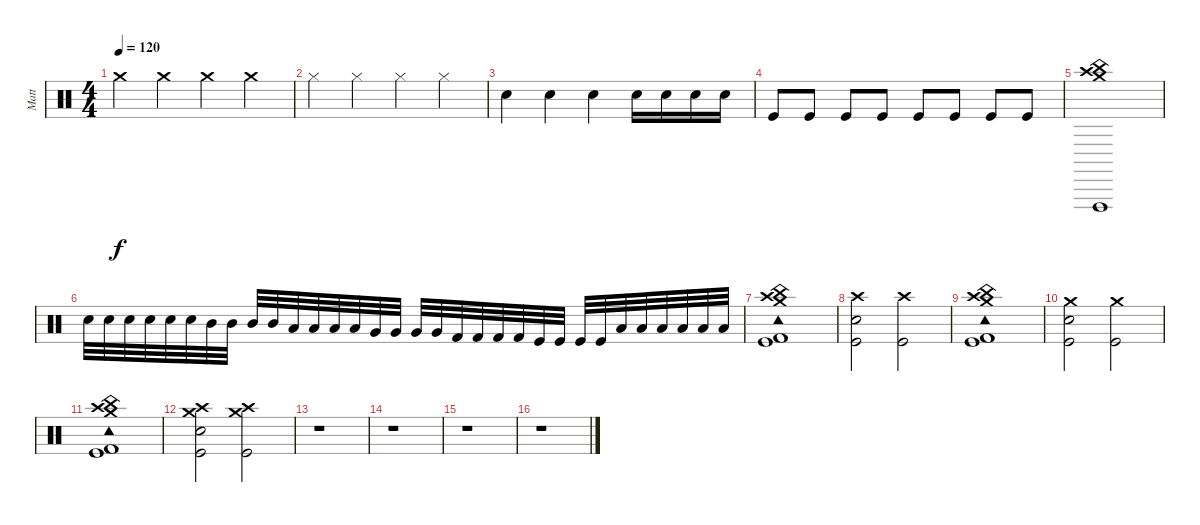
\track ("Matt" "Matt") {instrument percussion}
\staff {score}
\articulation defaults
\ts (4 4)
\tempo 120
\clef neutral
\ks c "Crash medium (hit)".4{dy f} "Crash medium (hit)".4 "Crash medium (hit)".4 "Crash medium (hit)".4
|
"Hi-Hat (closed)".4 "Hi-Hat (closed)".4 "Hi-Hat (closed)".4 "Hi-Hat (closed)".4 |
"Electric Snare (hit)".4 "Electric Snare (hit)".4 "Electric Snare (hit)".4 "Electric Snare (hit)".16 "Electric Snare (hit)".16 "Electric Snare (hit)".16 "Electric Snare (hit)".16 |
"Kick (hit)".8 "Kick (hit)".8 "Kick (hit)".8 "Kick (hit)".8 "Kick (hit)".8 "Kick (hit)".8 "Kick (hit)".8 "Kick (hit)".8 |
("Vibraslap (hit)" "China (hit)" "Crash medium (hit)" "Crash high (hit)").1 |
"Electric Snare (hit)".32 "Electric Snare (hit)".32 "Electric Snare (hit)".32 "Electric Snare (hit)".32 "Electric Snare (hit)".32 "Electric Snare (hit)".32 "Mid Tom (hit)".32 "Mid Tom (hit)".32 "Mid Tom (hit)".32 "Mid Tom (hit)".32 "Low Tom (hit)".32 "Low Tom (hit)".32 "Low Tom (hit)".32 "Low Tom (hit)".32 "Very Low Tom (hit)".32 "Very Low Tom (hit)".32 "Very Low Tom (hit)".32 "Very Low Tom (hit)".32 "Kick (hit) 2".32 "Kick (hit) 2".32 "Kick (hit) 2".32 "Kick (hit) 2".32 "Kick (hit)".32 "Kick (hit)".32 "Kick (hit)".32 "Kick (hit)".32 "Low Floor Tom (hit)".32 "Low Floor Tom (hit)".32 "Low Floor Tom (hit)".32 "Low Floor Tom (hit)".32 "Low Floor Tom (hit)".32 "Low Floor Tom (hit)".32 |
("Kick (hit) 2" "Crash high (hit)" "Crash medium (hit)" "Tambourine (hit)" "China (hit)" "Kick (hit)").1 |
("Kick (hit)" "Crash high (hit)" "Electric Snare (hit)").2 ("Kick (hit)" "Crash high (hit)").2 |
("Kick (hit) 2" "Crash high (hit)" "Crash medium (hit)" "Tambourine (hit)" "China (hit)" "Kick (hit)").1 |
("Kick (hit)" "Crash medium (hit)" "Electric Snare (hit)").2 ("Kick (hit)" "Crash medium (hit)").2 |
("Kick (hit) 2" "Crash high (hit)" "Crash medium (hit)" "Tambourine (hit)" "China (hit)" "Kick (hit)").1 |
("Kick (hit)" "Crash medium (hit)" "Crash high (hit)" "Electric Snare (hit)").2 ("Kick (hit)" "Crash medium (hit)" "Crash high (hit)").2 |
r.1 |
r.1 |
r.1 |
r.1
